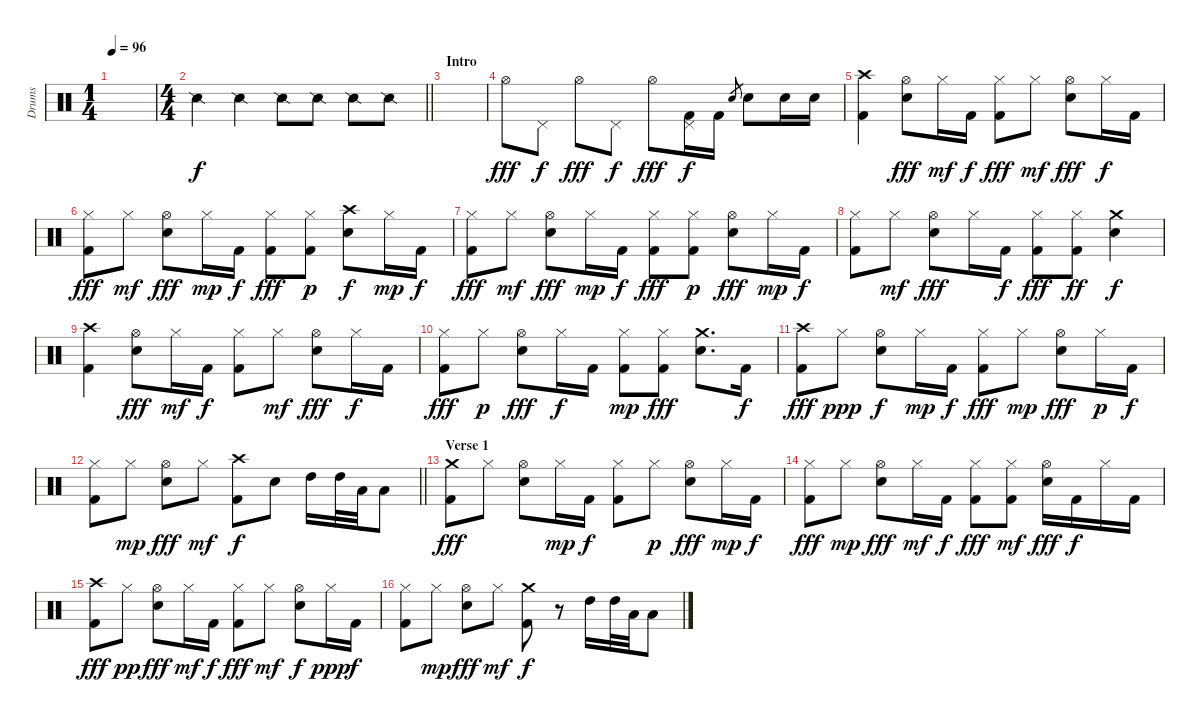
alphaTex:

\track ("Drums" "Drums") {instrument percussion}
\staff {score}
\articulation defaults
\ts (1 4)
\tempo 96
\clef neutral
\ks c
|
\ts (4 4)
\barLineRight lightlight "Snare (side stick) 2".4 "Snare (side stick) 2".4 "Snare (side stick) 2".8 "Snare (side stick) 2".8 "Snare (side stick) 2".8 "Snare (side stick) 2".8
|
\section ("" "Intro")
|
"Hi-Hat (open)".8{dy fff} "Pedal Hi-Hat (hit)".8{dy f} "Hi-Hat (open)".8{dy fff} "Pedal Hi-Hat (hit)".8{dy f} "Hi-Hat (open)".8{dy fff} ("Pedal Hi-Hat (hit)" "Kick (hit) 2").16{dy f} "Kick (hit) 2".16 "Snare (hit) 2".8{gr} "Snare (hit) 2".8 "Snare (hit) 2".16 "Snare (hit) 2".16 |
("Crash high (hit)" "Kick (hit) 2").4 ("Hi-Hat (open)" "Snare (hit) 2").8{dy fff} "Hi-Hat (closed)".16{dy mf} "Kick (hit) 2".16{dy f} ("Hi-Hat (closed)" "Kick (hit) 2").8{dy fff} "Hi-Hat (closed)".8{dy mf} ("Hi-Hat (open)" "Snare (hit) 2").8{dy fff} "Hi-Hat (closed)".16{dy f} "Kick (hit) 2".16 |
("Hi-Hat (closed)" "Kick (hit) 2").8{dy fff} "Hi-Hat (closed)".8{dy mf} ("Hi-Hat (open)" "Snare (hit) 2").8{dy fff} "Hi-Hat (closed)".16{dy mp} "Kick (hit) 2".16{dy f} ("Hi-Hat (closed)" "Kick (hit) 2").8{dy fff} ("Hi-Hat (closed)" "Kick (hit) 2").8{dy p} ("Crash high (hit)" "Snare (hit) 2").8{dy f} "Hi-Hat (closed)".16{dy mp} "Kick (hit) 2".16{dy f} |
("Hi-Hat (closed)" "Kick (hit) 2").8{dy fff} "Hi-Hat (closed)".8{dy mf} ("Hi-Hat (open)" "Snare (hit) 2").8{dy fff} "Hi-Hat (closed)".16{dy mp} "Kick (hit) 2".16{dy f} ("Hi-Hat (closed)" "Kick (hit) 2").8{dy fff} ("Hi-Hat (closed)" "Kick (hit) 2").8{dy p} ("Hi-Hat (open)" "Snare (hit) 2").8{dy fff} "Hi-Hat (closed)".16{dy mp} "Kick (hit) 2".16{dy f} |
("Hi-Hat (closed)" "Kick (hit) 2").8 "Hi-Hat (closed)".8{dy mf} ("Hi-Hat (open)" "Snare (hit) 2").8{dy fff} "Hi-Hat (closed)".16 "Kick (hit) 2".16{dy f} ("Hi-Hat (closed)" "Kick (hit) 2").8{dy fff} ("Hi-Hat (closed)" "Kick (hit) 2").8{dy ff} ("Crash medium (hit)" "Snare (hit) 2").4{dy f} |
("Crash high (hit)" "Kick (hit) 2").4 ("Hi-Hat (open)" "Snare (hit) 2").8{dy fff} "Hi-Hat (closed)".16{dy mf} "Kick (hit) 2".16{dy f} ("Hi-Hat (closed)" "Kick (hit) 2").8 "Hi-Hat (closed)".8{dy mf} ("Hi-Hat (open)" "Snare (hit) 2").8{dy fff} "Hi-Hat (closed)".16{dy f} "Kick (hit) 2".16 |
("Hi-Hat (closed)" "Kick (hit) 2").8{dy fff} "Hi-Hat (closed)".8{dy p} ("Hi-Hat (open)" "Snare (hit) 2").8{dy fff} "Hi-Hat (closed)".16{dy f} "Kick (hit) 2".16 ("Hi-Hat (closed)" "Kick (hit) 2").8{dy mp} ("Hi-Hat (closed)" "Kick (hit) 2").8{dy fff} ("Crash medium (hit)" "Snare (hit) 2").8{d} "Kick (hit) 2".16{dy f} |
("Crash high (hit)" "Kick (hit) 2").8{dy fff} "Hi-Hat (closed)".8{dy ppp} ("Hi-Hat (open)" "Snare (hit) 2").8{dy f} "Hi-Hat (closed)".16{dy mp} "Kick (hit) 2".16{dy f} ("Hi-Hat (closed)" "Kick (hit) 2").8{dy fff} "Hi-Hat (closed)".8{dy mp} ("Hi-Hat (open)" "Snare (hit) 2").8{dy fff} "Hi-Hat (closed)".16{dy p} "Kick (hit) 2".16{dy f} |
\barLineRight lightlight
("Hi-Hat (closed)" "Kick (hit) 2").8 "Hi-Hat (closed)".8{dy mp} ("Hi-Hat (open)" "Snare (hit) 2").8{dy fff} "Hi-Hat (closed)".8{dy mf} ("Crash high (hit)" "Kick (hit) 2").8{dy f} "Snare (hit) 2".8 "High Tom (hit)".16 "High Tom (hit)".32 "Low Tom (hit)".32 "Low Tom (hit)".8 |
\section ("" "Verse 1")
("Crash medium (hit)" "Kick (hit) 2").8{dy fff} "Hi-Hat (closed)".8 ("Hi-Hat (open)" "Snare (hit) 2").8 "Hi-Hat (closed)".16{dy mp} "Kick (hit) 2".16{dy f} ("Hi-Hat (closed)" "Kick (hit) 2").8 "Hi-Hat (closed)".8{dy p} ("Hi-Hat (open)" "Snare (hit) 2").8{dy fff} "Hi-Hat (closed)".16{dy mp} "Kick (hit) 2".16{dy f} |
("Hi-Hat (closed)" "Kick (hit) 2").8{dy fff} "Hi-Hat (closed)".8{dy mp} ("Hi-Hat (open)" "Snare (hit) 2").8{dy fff} "Hi-Hat (closed)".16{dy mf} "Kick (hit) 2".16{dy f} ("Hi-Hat (closed)" "Kick (hit) 2").8{dy fff} ("Hi-Hat (closed)" "Kick (hit) 2").8{dy mf} ("Hi-Hat (open)" "Snare (hit) 2").16{dy fff} "Kick (hit) 2".16{dy f} "Hi-Hat (closed)".16 "Kick (hit) 2".16 |
("Crash high (hit)" "Kick (hit) 2").8{dy fff} "Hi-Hat (closed)".8{dy pp} ("Hi-Hat (open)" "Snare (hit) 2").8{dy fff} "Hi-Hat (closed)".16{dy mf} "Kick (hit) 2".16{dy f} ("Hi-Hat (closed)" "Kick (hit) 2").8{dy fff} "Hi-Hat (closed)".8{dy mf} ("Hi-Hat (open)" "Snare (hit) 2").8{dy f} "Hi-Hat (closed)".16{dy ppp} "Kick (hit) 2".16{dy f} |
("Hi-Hat (closed)" "Kick (hit) 2").8 "Hi-Hat (closed)".8{dy mp} ("Hi-Hat (open)" "Snare (hit) 2").8{dy fff} "Hi-Hat (closed)".8{dy mf} ("Crash medium (hit)" "Kick (hit) 2").8{dy f} r.8 "High Tom (hit)".16 "High Tom (hit)".32 "Low Tom (hit)".32 "Low Tom (hit)".8
